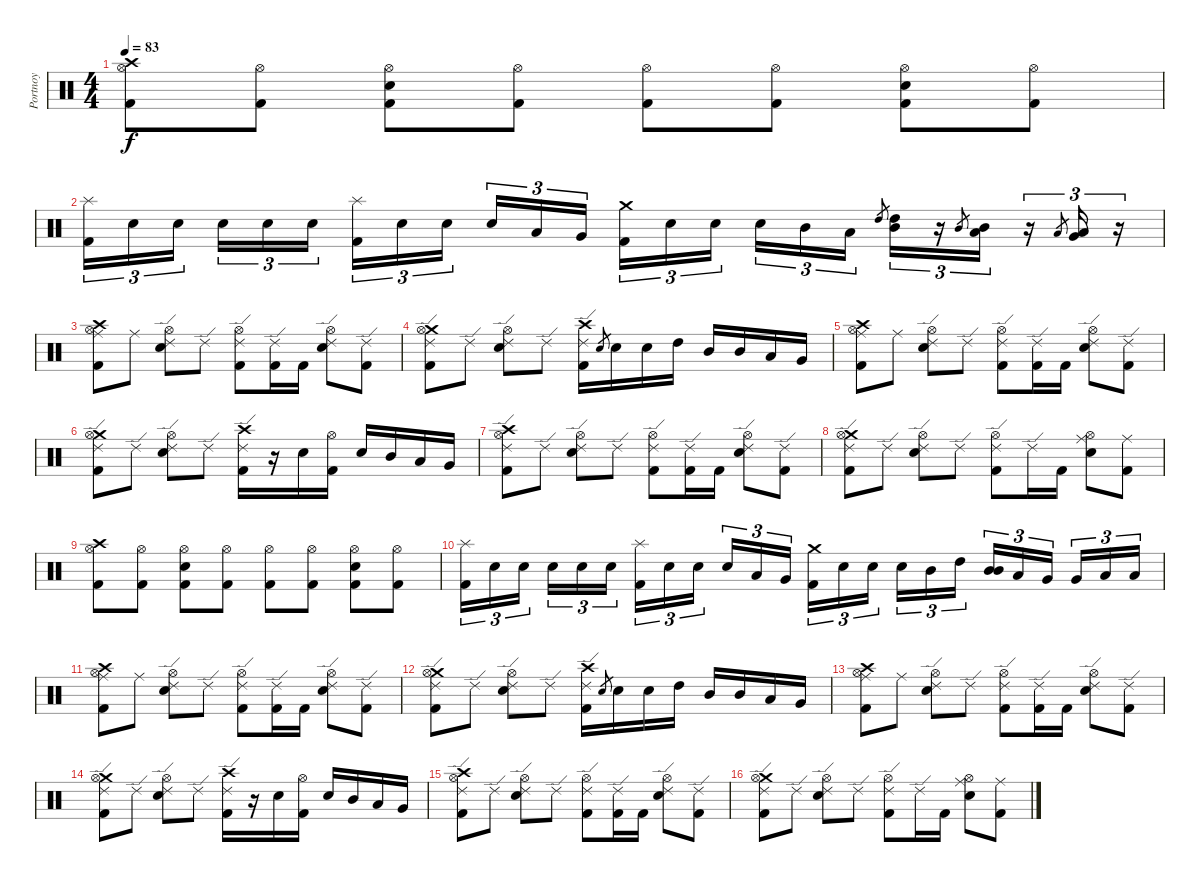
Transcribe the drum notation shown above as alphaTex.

\track ("Portnoy" "Portnoy") {instrument percussion}
\staff {score}
\articulation defaults
\ts (4 4)
\tempo 83
\clef neutral
\ks c
("Hi-Hat (open)" "Crash high (hit)" "Kick (hit) 2").8{dy f} ("Hi-Hat (open)" "Kick (hit) 2").8 ("Hi-Hat (open)" "Electric Snare (hit)" "Kick (hit) 2").8 ("Hi-Hat (open)" "Kick (hit) 2").8 ("Hi-Hat (open)" "Kick (hit) 2").8 ("Hi-Hat (open)" "Kick (hit) 2").8 ("Hi-Hat (open)" "Electric Snare (hit)" "Kick (hit) 2").8 ("Hi-Hat (open)" "Kick (hit) 2").8 |
("Splash (hit)" "Kick (hit) 2").16{tu (3 2)} "Electric Snare (hit)".16{tu (3 2)} "Electric Snare (hit)".16{tu (3 2)} "Electric Snare (hit)".16{tu (3 2)} "Electric Snare (hit)".16{tu (3 2)} "Electric Snare (hit)".16{tu (3 2)} ("Splash (hit)" "Kick (hit) 2").16{tu (3 2)} "Electric Snare (hit)".16{tu (3 2)} "Electric Snare (hit)".16{tu (3 2)} "Electric Snare (hit)".16{tu (3 2)} "Low Tom (hit)".16{tu (3 2)} "Very Low Tom (hit)".16{tu (3 2)} ("Crash medium (hit)" "Kick (hit) 2").16{tu (3 2)} "Electric Snare (hit)".16{tu (3 2)} "Electric Snare (hit)".16{tu (3 2)} "Electric Snare (hit)".16{tu (3 2)} "Mid Tom (hit)".16{tu (3 2)} "Low Tom (hit)".16{tu (3 2)} "High Tom (hit)".8{gr} ("High Tom (hit)" "Mid Tom (hit)").16{tu (3 2)} r.16{tu (3 2)} "Mid Tom (hit)".8{gr} ("Mid Tom (hit)" "Low Tom (hit)").16{tu (3 2)} r.16{tu (3 2)} "Low Tom (hit)".8{gr} ("Low Tom (hit)" "Very Low Tom (hit)").16{tu (3 2)} r.16{tu (3 2)} |
("Crash high (hit)" "Hi-Hat (open)" "Ride (middle)" "Kick (hit) 2").8 "Ride (middle)".8 ("Hi-Hat (open)" "Ride (edge) 2" "Electric Snare (hit)").8 "Ride (edge) 2".8 ("Hi-Hat (open)" "Ride (edge) 2" "Kick (hit) 2").8 ("Ride (edge) 2" "Kick (hit) 2").16 "Kick (hit) 2".16 ("Hi-Hat (open)" "Ride (edge) 2" "Electric Snare (hit)").8 ("Ride (edge) 2" "Kick (hit) 2").8 |
("Crash medium (hit)" "Hi-Hat (open)" "Ride (edge) 2" "Kick (hit) 2").8 "Ride (edge) 2".8 ("Hi-Hat (open)" "Ride (edge) 2" "Electric Snare (hit)").8 "Ride (edge) 2".8 ("Crash high (hit)" "Ride (edge) 2" "Kick (hit) 2").16 "Electric Snare (hit)".8{gr} "Electric Snare (hit)".16 "Electric Snare (hit)".16 "High Tom (hit)".16 "Mid Tom (hit)".16 "Mid Tom (hit)".16 "Low Tom (hit)".16 "Very Low Tom (hit)".16 |
("Crash high (hit)" "Hi-Hat (open)" "Ride (middle)" "Kick (hit) 2").8 "Ride (middle)".8 ("Hi-Hat (open)" "Ride (edge) 2" "Electric Snare (hit)").8 "Ride (edge) 2".8 ("Hi-Hat (open)" "Ride (edge) 2" "Kick (hit) 2").8 ("Ride (edge) 2" "Kick (hit) 2").16 "Kick (hit) 2".16 ("Hi-Hat (open)" "Ride (edge) 2" "Electric Snare (hit)").8 ("Ride (edge) 2" "Kick (hit) 2").8 |
("Crash medium (hit)" "Hi-Hat (open)" "Ride (edge) 2" "Kick (hit) 2").8 "Ride (edge) 2".8 ("Hi-Hat (open)" "Ride (edge) 2" "Electric Snare (hit)").8 "Ride (edge) 2".8 ("Crash high (hit)" "Ride (edge) 2" "Kick (hit) 2").16 r.16 "Electric Snare (hit)".16 ("Hi-Hat (open)" "Kick (hit) 2").16 "Electric Snare (hit)".16 "Mid Tom (hit)".16 "Low Tom (hit)".16 "Very Low Tom (hit)".16 |
("Crash high (hit)" "Hi-Hat (open)" "Ride (edge) 2" "Kick (hit) 2").8 "Ride (edge) 2".8 ("Hi-Hat (open)" "Ride (edge) 2" "Electric Snare (hit)").8 "Ride (edge) 2".8 ("Hi-Hat (open)" "Ride (edge) 2" "Kick (hit) 2").8 ("Ride (edge) 2" "Kick (hit) 2").16 "Kick (hit) 2".16 ("Hi-Hat (open)" "Ride (edge) 2" "Electric Snare (hit)").8 ("Ride (edge) 2" "Kick (hit) 2").8 |
("Crash medium (hit)" "Hi-Hat (open)" "Ride (edge) 2" "Kick (hit) 2").8 "Ride (edge) 2".8 ("Hi-Hat (open)" "Ride (edge) 2" "Electric Snare (hit)").8 "Ride (edge) 2".8 ("Hi-Hat (open)" "Ride (edge) 2" "Kick (hit) 2").8 "Ride (edge) 2".16 "Kick (hit) 2".16 ("Hi-Hat (open)" "Ride (middle)" "Electric Snare (hit)").8 ("Ride (middle)" "Kick (hit) 2").8 |
("Hi-Hat (open)" "Crash high (hit)" "Kick (hit) 2").8 ("Hi-Hat (open)" "Kick (hit) 2").8 ("Hi-Hat (open)" "Electric Snare (hit)" "Kick (hit) 2").8 ("Hi-Hat (open)" "Kick (hit) 2").8 ("Hi-Hat (open)" "Kick (hit) 2").8 ("Hi-Hat (open)" "Kick (hit) 2").8 ("Hi-Hat (open)" "Electric Snare (hit)" "Kick (hit) 2").8 ("Hi-Hat (open)" "Kick (hit) 2").8 |
("Splash (hit)" "Kick (hit) 2").16{tu (3 2)} "Electric Snare (hit)".16{tu (3 2)} "Electric Snare (hit)".16{tu (3 2)} "Electric Snare (hit)".16{tu (3 2)} "Electric Snare (hit)".16{tu (3 2)} "Electric Snare (hit)".16{tu (3 2)} ("Splash (hit)" "Kick (hit) 2").16{tu (3 2)} "Electric Snare (hit)".16{tu (3 2)} "Electric Snare (hit)".16{tu (3 2)} "Electric Snare (hit)".16{tu (3 2)} "Low Tom (hit)".16{tu (3 2)} "Very Low Tom (hit)".16{tu (3 2)} ("Crash medium (hit)" "Kick (hit) 2").16{tu (3 2)} "Electric Snare (hit)".16{tu (3 2)} "Electric Snare (hit)".16{tu (3 2)} "Electric Snare (hit)".16{tu (3 2)} "Mid Tom (hit)".16{tu (3 2)} "High Tom (hit)".16{tu (3 2)} ("Mid Tom (hit)" "Mid Tom (hit)").16{tu (3 2)} "Low Tom (hit)".16{tu (3 2)} "Very Low Tom (hit)".16{tu (3 2)} "Very Low Tom (hit)".16{tu (3 2)} "Low Floor Tom (hit)".16{tu (3 2)} "Low Floor Tom (hit)".16{tu (3 2)} |
("Crash high (hit)" "Hi-Hat (open)" "Ride (middle)" "Kick (hit) 2").8 "Ride (middle)".8 ("Hi-Hat (open)" "Ride (edge) 2" "Electric Snare (hit)").8 "Ride (edge) 2".8 ("Hi-Hat (open)" "Ride (edge) 2" "Kick (hit) 2").8 ("Ride (edge) 2" "Kick (hit) 2").16 "Kick (hit) 2".16 ("Hi-Hat (open)" "Ride (edge) 2" "Electric Snare (hit)").8 ("Ride (edge) 2" "Kick (hit) 2").8 |
("Crash medium (hit)" "Hi-Hat (open)" "Ride (edge) 2" "Kick (hit) 2").8 "Ride (edge) 2".8 ("Hi-Hat (open)" "Ride (edge) 2" "Electric Snare (hit)").8 "Ride (edge) 2".8 ("Crash high (hit)" "Ride (edge) 2" "Kick (hit) 2").16 "Electric Snare (hit)".8{gr} "Electric Snare (hit)".16 "Electric Snare (hit)".16 "High Tom (hit)".16 "Mid Tom (hit)".16 "Mid Tom (hit)".16 "Low Tom (hit)".16 "Very Low Tom (hit)".16 |
("Crash high (hit)" "Hi-Hat (open)" "Ride (middle)" "Kick (hit) 2").8 "Ride (middle)".8 ("Hi-Hat (open)" "Ride (edge) 2" "Electric Snare (hit)").8 "Ride (edge) 2".8 ("Hi-Hat (open)" "Ride (edge) 2" "Kick (hit) 2").8 ("Ride (edge) 2" "Kick (hit) 2").16 "Kick (hit) 2".16 ("Hi-Hat (open)" "Ride (edge) 2" "Electric Snare (hit)").8 ("Ride (edge) 2" "Kick (hit) 2").8 |
("Crash medium (hit)" "Hi-Hat (open)" "Ride (edge) 2" "Kick (hit) 2").8 "Ride (edge) 2".8 ("Hi-Hat (open)" "Ride (edge) 2" "Electric Snare (hit)").8 "Ride (edge) 2".8 ("Crash high (hit)" "Ride (edge) 2" "Kick (hit) 2").16 r.16 "Electric Snare (hit)".16 ("Hi-Hat (open)" "Kick (hit) 2").16 "Electric Snare (hit)".16 "Mid Tom (hit)".16 "Low Tom (hit)".16 "Very Low Tom (hit)".16 |
("Crash high (hit)" "Hi-Hat (open)" "Ride (edge) 2" "Kick (hit) 2").8 "Ride (edge) 2".8 ("Hi-Hat (open)" "Ride (edge) 2" "Electric Snare (hit)").8 "Ride (edge) 2".8 ("Hi-Hat (open)" "Ride (edge) 2" "Kick (hit) 2").8 ("Ride (edge) 2" "Kick (hit) 2").16 "Kick (hit) 2".16 ("Hi-Hat (open)" "Ride (edge) 2" "Electric Snare (hit)").8 ("Ride (edge) 2" "Kick (hit) 2").8 |
("Crash medium (hit)" "Hi-Hat (open)" "Ride (edge) 2" "Kick (hit) 2").8 "Ride (edge) 2".8 ("Hi-Hat (open)" "Ride (edge) 2" "Electric Snare (hit)").8 "Ride (edge) 2".8 ("Hi-Hat (open)" "Ride (edge) 2" "Kick (hit) 2").8 "Ride (edge) 2".16 "Kick (hit) 2".16 ("Hi-Hat (open)" "Ride (middle)" "Electric Snare (hit)").8 ("Ride (middle)" "Kick (hit) 2").8
